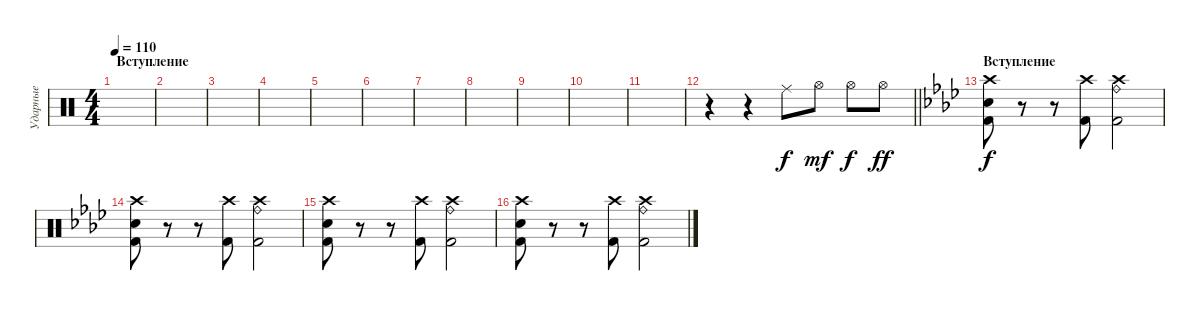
\track ("Ударные" "Ударные") {instrument percussion}
\staff {score}
\articulation defaults
\ts (4 4)
\section ("" "Вступление")
\tempo 110
\clef neutral
\ks c
|
|
|
|
|
|
|
|
|
|
|
\barLineRight lightlight
r.4 r.4 "Ride (middle)".8 "Hi-Hat (open)".8{dy mf} "Hi-Hat (open)".8{dy f} "Hi-Hat (open)".8{dy ff} |
\section ("" "Вступление")
\ks fminor
("Crash high (hit)" "Snare (hit) 2" "Kick (hit) 2").8{dy f} r.8 r.8 ("Crash high (hit)" "Kick (hit) 2").8 ("Crash high (hit)" "Kick (hit) 2" "Ride (bell)").2 |
("Crash high (hit)" "Snare (hit) 2" "Kick (hit) 2").8 r.8 r.8 ("Crash high (hit)" "Kick (hit) 2").8 ("Crash high (hit)" "Kick (hit) 2" "Ride (bell)").2 |
("Crash high (hit)" "Snare (hit) 2" "Kick (hit) 2").8 r.8 r.8 ("Crash high (hit)" "Kick (hit) 2").8 ("Crash high (hit)" "Kick (hit) 2" "Ride (bell)").2 |
("Crash high (hit)" "Snare (hit) 2" "Kick (hit) 2").8 r.8 r.8 ("Crash high (hit)" "Kick (hit) 2").8 ("Crash high (hit)" "Kick (hit) 2" "Ride (bell)").2
